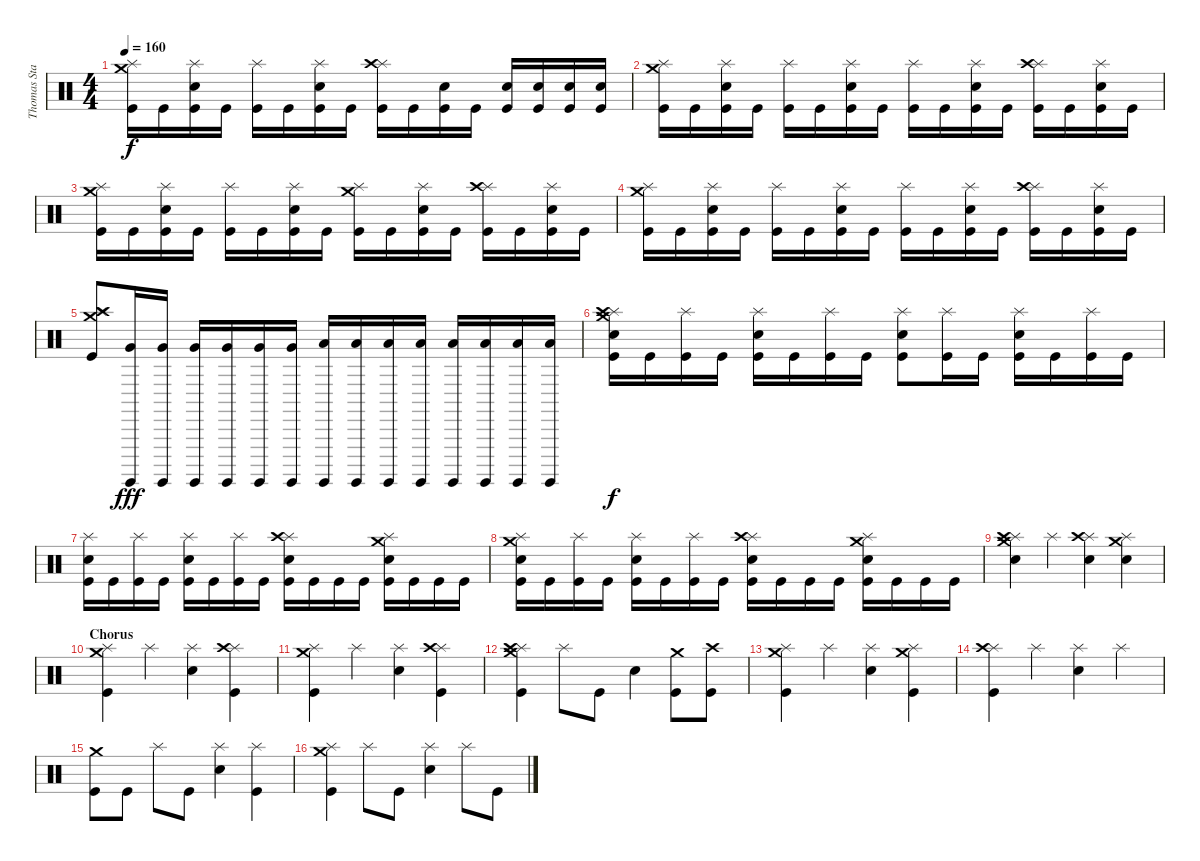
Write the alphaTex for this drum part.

\track ("Thomas Stauch" "Thomas Sta") {instrument percussion}
\staff {score}
\articulation defaults
\ts (4 4)
\tempo 160
\clef neutral
\ks c
("Crash medium (hit)" "Splash (hit)" "Kick (hit)").16{dy f} "Kick (hit)".16 ("Splash (hit)" "Electric Snare (hit)" "Kick (hit)").16 "Kick (hit)".16 ("Splash (hit)" "Kick (hit)").16 "Kick (hit)".16 ("Splash (hit)" "Electric Snare (hit)" "Kick (hit)").16 "Kick (hit)".16 ("Splash (hit)" "Crash high (hit)" "Kick (hit)").16 "Kick (hit)".16 ("Electric Snare (hit)" "Kick (hit)").16 "Kick (hit)".16 ("Electric Snare (hit)" "Kick (hit)").16 ("Electric Snare (hit)" "Kick (hit)").16 ("Electric Snare (hit)" "Kick (hit)").16 ("Electric Snare (hit)" "Kick (hit)").16 |
("Crash medium (hit)" "Splash (hit)" "Kick (hit)").16 "Kick (hit)".16 ("Splash (hit)" "Electric Snare (hit)" "Kick (hit)").16 "Kick (hit)".16 ("Splash (hit)" "Kick (hit)").16 "Kick (hit)".16 ("Splash (hit)" "Electric Snare (hit)" "Kick (hit)").16 "Kick (hit)".16 ("Splash (hit)" "Kick (hit)").16 "Kick (hit)".16 ("Splash (hit)" "Electric Snare (hit)" "Kick (hit)").16 "Kick (hit)".16 ("Splash (hit)" "Crash high (hit)" "Kick (hit)").16 "Kick (hit)".16 ("Splash (hit)" "Electric Snare (hit)" "Kick (hit)").16 "Kick (hit)".16 |
("Crash medium (hit)" "Splash (hit)" "Kick (hit)").16 "Kick (hit)".16 ("Splash (hit)" "Electric Snare (hit)" "Kick (hit)").16 "Kick (hit)".16 ("Splash (hit)" "Kick (hit)").16 "Kick (hit)".16 ("Splash (hit)" "Electric Snare (hit)" "Kick (hit)").16 "Kick (hit)".16 ("Crash medium (hit)" "Splash (hit)" "Kick (hit)").16 "Kick (hit)".16 ("Splash (hit)" "Electric Snare (hit)" "Kick (hit)").16 "Kick (hit)".16 ("Splash (hit)" "Crash high (hit)" "Kick (hit)").16 "Kick (hit)".16 ("Splash (hit)" "Electric Snare (hit)" "Kick (hit)").16 "Kick (hit)".16 |
("Crash medium (hit)" "Splash (hit)" "Kick (hit)").16 "Kick (hit)".16 ("Splash (hit)" "Electric Snare (hit)" "Kick (hit)").16 "Kick (hit)".16 ("Splash (hit)" "Kick (hit)").16 "Kick (hit)".16 ("Splash (hit)" "Electric Snare (hit)" "Kick (hit)").16 "Kick (hit)".16 ("Splash (hit)" "Kick (hit)").16 "Kick (hit)".16 ("Splash (hit)" "Electric Snare (hit)" "Kick (hit)").16 "Kick (hit)".16 ("Splash (hit)" "Crash high (hit)" "Kick (hit)").16 "Kick (hit)".16 ("Splash (hit)" "Electric Snare (hit)" "Kick (hit)").16 "Kick (hit)".16 |
("Crash medium (hit)" "Splash (hit)" "Crash high (hit)" "Kick (hit)").8 ("Surdo (hit)" "Very Low Tom (hit)").16{dy fff} ("Surdo (hit)" "Very Low Tom (hit)").16 ("Surdo (hit)" "Very Low Tom (hit)").16 ("Surdo (hit)" "Very Low Tom (hit)").16 ("Surdo (hit)" "Very Low Tom (hit)").16 ("Surdo (hit)" "Very Low Tom (hit)").16 ("Surdo (hit)" "Low Floor Tom (hit)").16 ("Surdo (hit)" "Low Floor Tom (hit)").16 ("Surdo (hit)" "Low Floor Tom (hit)").16 ("Surdo (hit)" "Low Floor Tom (hit)").16 ("Surdo (hit)" "Low Floor Tom (hit)").16 ("Surdo (hit)" "Low Floor Tom (hit)").16 ("Surdo (hit)" "Low Floor Tom (hit)").16 ("Surdo (hit)" "Low Floor Tom (hit)").16 |
("Crash medium (hit)" "Splash (hit)" "Crash high (hit)" "Electric Snare (hit)" "Kick (hit)").16{dy f} "Kick (hit)".16 ("Splash (hit)" "Kick (hit)").16 "Kick (hit)".16 ("Splash (hit)" "Electric Snare (hit)" "Kick (hit)").16 "Kick (hit)".16 ("Splash (hit)" "Kick (hit)").16 "Kick (hit)".16 ("Splash (hit)" "Electric Snare (hit)" "Kick (hit)").8 ("Splash (hit)" "Kick (hit)").16 "Kick (hit)".16 ("Splash (hit)" "Electric Snare (hit)" "Kick (hit)").16 "Kick (hit)".16 ("Splash (hit)" "Kick (hit)").16 "Kick (hit)".16 |
("Splash (hit)" "Electric Snare (hit)" "Kick (hit)").16 "Kick (hit)".16 ("Splash (hit)" "Kick (hit)").16 "Kick (hit)".16 ("Splash (hit)" "Electric Snare (hit)" "Kick (hit)").16 "Kick (hit)".16 ("Splash (hit)" "Kick (hit)").16 "Kick (hit)".16 ("Splash (hit)" "Crash high (hit)" "Electric Snare (hit)" "Kick (hit)").16 "Kick (hit)".16 "Kick (hit)".16 "Kick (hit)".16 ("Crash medium (hit)" "Splash (hit)" "Electric Snare (hit)" "Kick (hit)").16 "Kick (hit)".16 "Kick (hit)".16 "Kick (hit)".16 |
("Crash medium (hit)" "Splash (hit)" "Electric Snare (hit)" "Kick (hit)").16 "Kick (hit)".16 ("Splash (hit)" "Kick (hit)").16 "Kick (hit)".16 ("Splash (hit)" "Electric Snare (hit)" "Kick (hit)").16 "Kick (hit)".16 ("Splash (hit)" "Kick (hit)").16 "Kick (hit)".16 ("Splash (hit)" "Crash high (hit)" "Electric Snare (hit)" "Kick (hit)").16 "Kick (hit)".16 "Kick (hit)".16 "Kick (hit)".16 ("Crash medium (hit)" "Splash (hit)" "Electric Snare (hit)" "Kick (hit)").16 "Kick (hit)".16 "Kick (hit)".16 "Kick (hit)".16 |
("Crash medium (hit)" "Splash (hit)" "Crash high (hit)" "Electric Snare (hit)").4 "Splash (hit)".4 ("Splash (hit)" "Crash high (hit)" "Electric Snare (hit)").4 ("Crash medium (hit)" "Splash (hit)" "Electric Snare (hit)").4 |
\section ("" "Chorus")
("Crash medium (hit)" "Splash (hit)" "Kick (hit)").4 "Splash (hit)".4 ("Splash (hit)" "Electric Snare (hit)").4 ("Splash (hit)" "Crash high (hit)" "Kick (hit)").4 |
("Crash medium (hit)" "Splash (hit)" "Kick (hit)").4 "Splash (hit)".4 ("Splash (hit)" "Electric Snare (hit)").4 ("Splash (hit)" "Crash high (hit)" "Kick (hit)").4 |
("Crash medium (hit)" "Splash (hit)" "Crash high (hit)" "Kick (hit)").4 "Splash (hit)".8 "Kick (hit)".8 "Electric Snare (hit)".4 ("Crash medium (hit)" "Kick (hit)").8 ("Crash high (hit)" "Kick (hit)").8 |
("Crash medium (hit)" "Splash (hit)" "Kick (hit)").4 "Splash (hit)".4 ("Splash (hit)" "Electric Snare (hit)").4 ("Crash medium (hit)" "Splash (hit)" "Kick (hit)").4 |
("Splash (hit)" "Crash high (hit)" "Kick (hit)").4 "Splash (hit)".4 ("Splash (hit)" "Electric Snare (hit)").4 "Splash (hit)".4 |
("Crash medium (hit)" "Kick (hit)").8 "Kick (hit)".8 "Splash (hit)".8 "Kick (hit)".8 ("Splash (hit)" "Electric Snare (hit)").4 ("Splash (hit)" "Kick (hit)").4 |
("Crash medium (hit)" "Splash (hit)" "Kick (hit)").4 "Splash (hit)".8 "Kick (hit)".8 ("Splash (hit)" "Electric Snare (hit)").4 "Splash (hit)".8 "Kick (hit)".8
